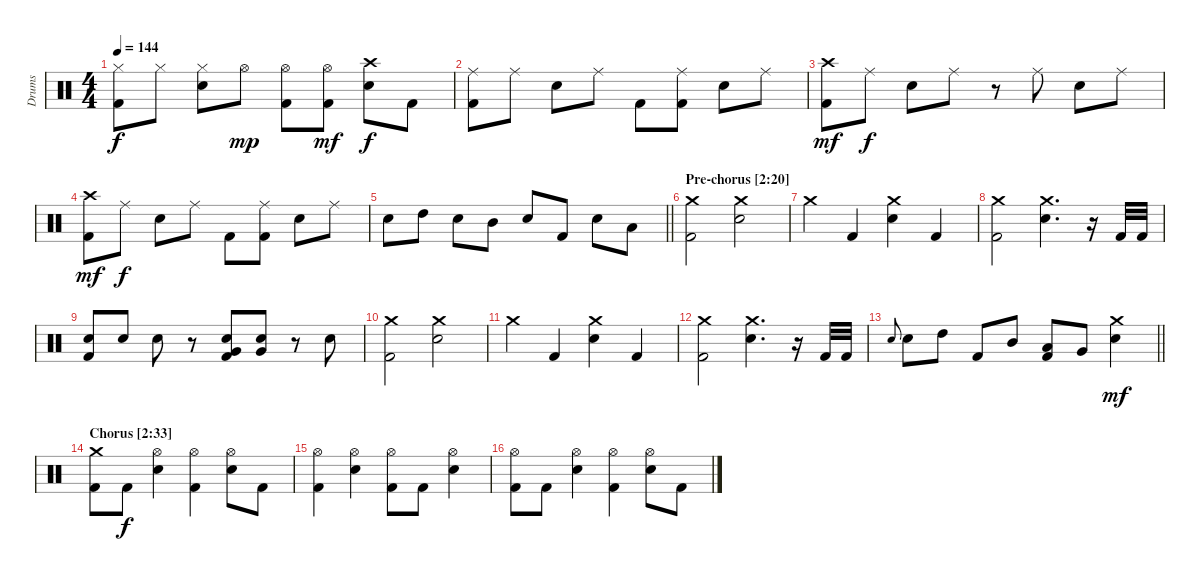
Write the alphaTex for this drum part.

\track ("Drums" "Drums") {instrument percussion}
\staff {score}
\articulation defaults
\ts (4 4)
\tempo 144
\clef neutral
\ks c
("Hi-Hat (closed)" "Kick (hit) 2").8{dy f} "Hi-Hat (closed)".8 ("Hi-Hat (closed)" "Snare (hit) 2").8 "Hi-Hat (open)".8{dy mp} ("Hi-Hat (open)" "Kick (hit) 2").8 ("Hi-Hat (open)" "Kick (hit) 2").8{dy mf} ("Crash high (hit)" "Snare (hit) 2").8{dy f} "Kick (hit) 2".8 |
("Ride (middle)" "Kick (hit) 2").8 "Ride (middle)".8 "Snare (hit) 2".8 "Ride (middle)".8 "Kick (hit) 2".8 ("Ride (middle)" "Kick (hit) 2").8 "Snare (hit) 2".8 "Ride (middle)".8 |
("Crash high (hit)" "Kick (hit) 2").8{dy mf} "Ride (middle)".8{dy f} "Snare (hit) 2".8 "Ride (middle)".8 r.8 "Ride (middle)".8 "Snare (hit) 2".8 "Ride (middle)".8 |
("Crash high (hit)" "Kick (hit) 2").8{dy mf} "Ride (middle)".8{dy f} "Snare (hit) 2".8 "Ride (middle)".8 "Kick (hit) 2".8 ("Ride (middle)" "Kick (hit) 2").8 "Snare (hit) 2".8 "Ride (middle)".8 |
\barLineRight lightlight "Snare (hit) 2".8 "High Tom (hit)".8 "Snare (hit) 2".8 "Mid Tom (hit)".8 "Snare (hit) 2".8 "Kick (hit) 2".8 "Snare (hit) 2".8 "Low Floor Tom (hit)".8
|
\section ("" "Pre-chorus [2:20]")
("Crash medium (hit)" "Kick (hit) 2").2 ("Crash medium (hit)" "Snare (hit) 2").2 |
"Crash medium (hit)".4 "Kick (hit) 2".4 ("Crash medium (hit)" "Snare (hit) 2").4 "Kick (hit) 2".4 |
("Crash medium (hit)" "Kick (hit) 2").2 ("Crash medium (hit)" "Snare (hit) 2").4{d} r.16 "Kick (hit) 2".32 "Kick (hit) 2".32 |
("Snare (hit) 2" "Kick (hit) 2").8 "Snare (hit) 2".8 "Snare (hit) 2".8 r.8 ("Very Low Tom (hit)" "Snare (hit) 2" "Kick (hit) 2").8 ("Very Low Tom (hit)" "Snare (hit) 2").8 r.8 "Snare (hit) 2".8 |
("Crash medium (hit)" "Kick (hit) 2").2 ("Crash medium (hit)" "Snare (hit) 2").2 |
"Crash medium (hit)".4 "Kick (hit) 2".4 ("Crash medium (hit)" "Snare (hit) 2").4 "Kick (hit) 2".4 |
("Crash medium (hit)" "Kick (hit) 2").2 ("Crash medium (hit)" "Snare (hit) 2").4{d} r.16 "Kick (hit) 2".32 "Kick (hit) 2".32 |
\barLineRight lightlight "Snare (hit) 2".8{gr onbeat} "Snare (hit) 2".8 "High Tom (hit)".8 "Kick (hit) 2".8 "Mid Tom (hit)".8
("Low Tom (hit)" "Kick (hit) 2").8 "Very Low Tom (hit)".8 ("Crash medium (hit)" "Snare (hit) 2").4{dy mf} |
\section ("" "Chorus [2:33]")
("Crash medium (hit)" "Kick (hit) 2").8 "Kick (hit) 2".8{dy f} ("Hi-Hat (open)" "Snare (hit) 2").4 ("Hi-Hat (open)" "Kick (hit) 2").4 ("Hi-Hat (open)" "Snare (hit) 2").8 "Kick (hit) 2".8 |
("Hi-Hat (open)" "Kick (hit) 2").4 ("Hi-Hat (open)" "Snare (hit) 2").4 ("Hi-Hat (open)" "Kick (hit) 2").8 "Kick (hit) 2".8 ("Hi-Hat (open)" "Snare (hit) 2").4 |
("Hi-Hat (open)" "Kick (hit) 2").8 "Kick (hit) 2".8 ("Hi-Hat (open)" "Snare (hit) 2").4 ("Hi-Hat (open)" "Kick (hit) 2").4 ("Hi-Hat (open)" "Snare (hit) 2").8 "Kick (hit) 2".8
